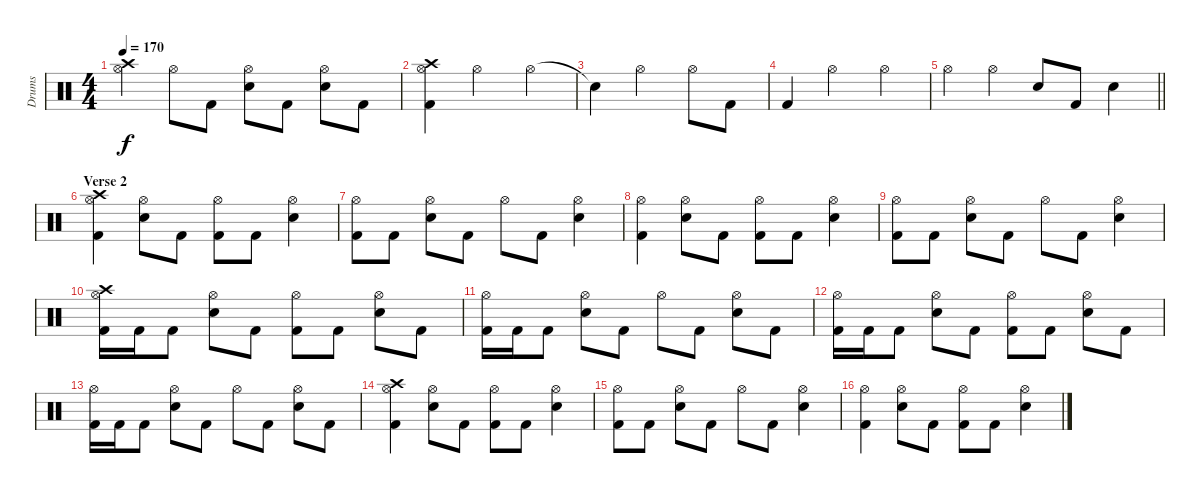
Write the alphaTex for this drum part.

\track ("Drums" "Drums") {instrument percussion}
\staff {score}
\articulation defaults
\ts (4 4)
\tempo 170
\clef neutral
\ks c
("Crash high (hit)" "Hi-Hat (open)").4{dy f} "Hi-Hat (open)".8 "Kick (hit) 2".8 ("Hi-Hat (open)" "Electric Snare (hit)").8 "Kick (hit) 2".8 ("Hi-Hat (open)" "Electric Snare (hit)").8 "Kick (hit) 2".8 |
("Crash high (hit)" "Hi-Hat (open)" "Kick (hit) 2").4 "Hi-Hat (open)".2 "Hi-Hat (open)".4 |
"Snare (hit)"{t}.4 "Hi-Hat (open)".2 "Hi-Hat (open)".8 "Kick (hit) 2".8 |
"Kick (hit) 2".4 "Hi-Hat (open)".2 "Hi-Hat (open)".4 |
\barLineRight lightlight "Hi-Hat (open)".4 "Hi-Hat (open)".4 "Electric Snare (hit)".8 "Kick (hit) 2".8 "Electric Snare (hit)".4
|
\section ("" "Verse 2")
("Crash high (hit)" "Hi-Hat (open)" "Kick (hit) 2").4 ("Hi-Hat (open)" "Electric Snare (hit)").8 "Kick (hit) 2".8 ("Hi-Hat (open)" "Kick (hit) 2").8 "Kick (hit) 2".8 ("Hi-Hat (open)" "Electric Snare (hit)").4 |
("Hi-Hat (open)" "Kick (hit) 2").8 "Kick (hit) 2".8 ("Hi-Hat (open)" "Electric Snare (hit)").8 "Kick (hit) 2".8 "Hi-Hat (open)".8 "Kick (hit) 2".8 ("Hi-Hat (open)" "Electric Snare (hit)").4 |
("Hi-Hat (open)" "Kick (hit) 2").4 ("Hi-Hat (open)" "Electric Snare (hit)").8 "Kick (hit) 2".8 ("Hi-Hat (open)" "Kick (hit) 2").8 "Kick (hit) 2".8 ("Hi-Hat (open)" "Electric Snare (hit)").4 |
("Hi-Hat (open)" "Kick (hit) 2").8 "Kick (hit) 2".8 ("Hi-Hat (open)" "Electric Snare (hit)").8 "Kick (hit) 2".8 "Hi-Hat (open)".8 "Kick (hit) 2".8 ("Hi-Hat (open)" "Electric Snare (hit)").4 |
("Crash high (hit)" "Hi-Hat (open)" "Kick (hit) 2").16 "Kick (hit) 2".16 "Kick (hit) 2".8 ("Hi-Hat (open)" "Electric Snare (hit)").8 "Kick (hit) 2".8 ("Hi-Hat (open)" "Kick (hit) 2").8 "Kick (hit) 2".8 ("Hi-Hat (open)" "Electric Snare (hit)").8 "Kick (hit) 2".8 |
("Hi-Hat (open)" "Kick (hit) 2").16 "Kick (hit) 2".16 "Kick (hit) 2".8 ("Hi-Hat (open)" "Electric Snare (hit)").8 "Kick (hit) 2".8 "Hi-Hat (open)".8 "Kick (hit) 2".8 ("Hi-Hat (open)" "Electric Snare (hit)").8 "Kick (hit) 2".8 |
("Hi-Hat (open)" "Kick (hit) 2").16 "Kick (hit) 2".16 "Kick (hit) 2".8 ("Hi-Hat (open)" "Electric Snare (hit)").8 "Kick (hit) 2".8 ("Hi-Hat (open)" "Kick (hit) 2").8 "Kick (hit) 2".8 ("Hi-Hat (open)" "Electric Snare (hit)").8 "Kick (hit) 2".8 |
("Hi-Hat (open)" "Kick (hit) 2").16 "Kick (hit) 2".16 "Kick (hit) 2".8 ("Hi-Hat (open)" "Electric Snare (hit)").8 "Kick (hit) 2".8 "Hi-Hat (open)".8 "Kick (hit) 2".8 ("Hi-Hat (open)" "Electric Snare (hit)").8 "Kick (hit) 2".8 |
("Crash high (hit)" "Hi-Hat (open)" "Kick (hit) 2").4 ("Hi-Hat (open)" "Electric Snare (hit)").8 "Kick (hit) 2".8 ("Hi-Hat (open)" "Kick (hit) 2").8 "Kick (hit) 2".8 ("Hi-Hat (open)" "Electric Snare (hit)").4 |
("Hi-Hat (open)" "Kick (hit) 2").8 "Kick (hit) 2".8 ("Hi-Hat (open)" "Electric Snare (hit)").8 "Kick (hit) 2".8 "Hi-Hat (open)".8 "Kick (hit) 2".8 ("Hi-Hat (open)" "Electric Snare (hit)").4 |
("Hi-Hat (open)" "Kick (hit) 2").4 ("Hi-Hat (open)" "Electric Snare (hit)").8 "Kick (hit) 2".8 ("Hi-Hat (open)" "Kick (hit) 2").8 "Kick (hit) 2".8 ("Hi-Hat (open)" "Electric Snare (hit)").4
